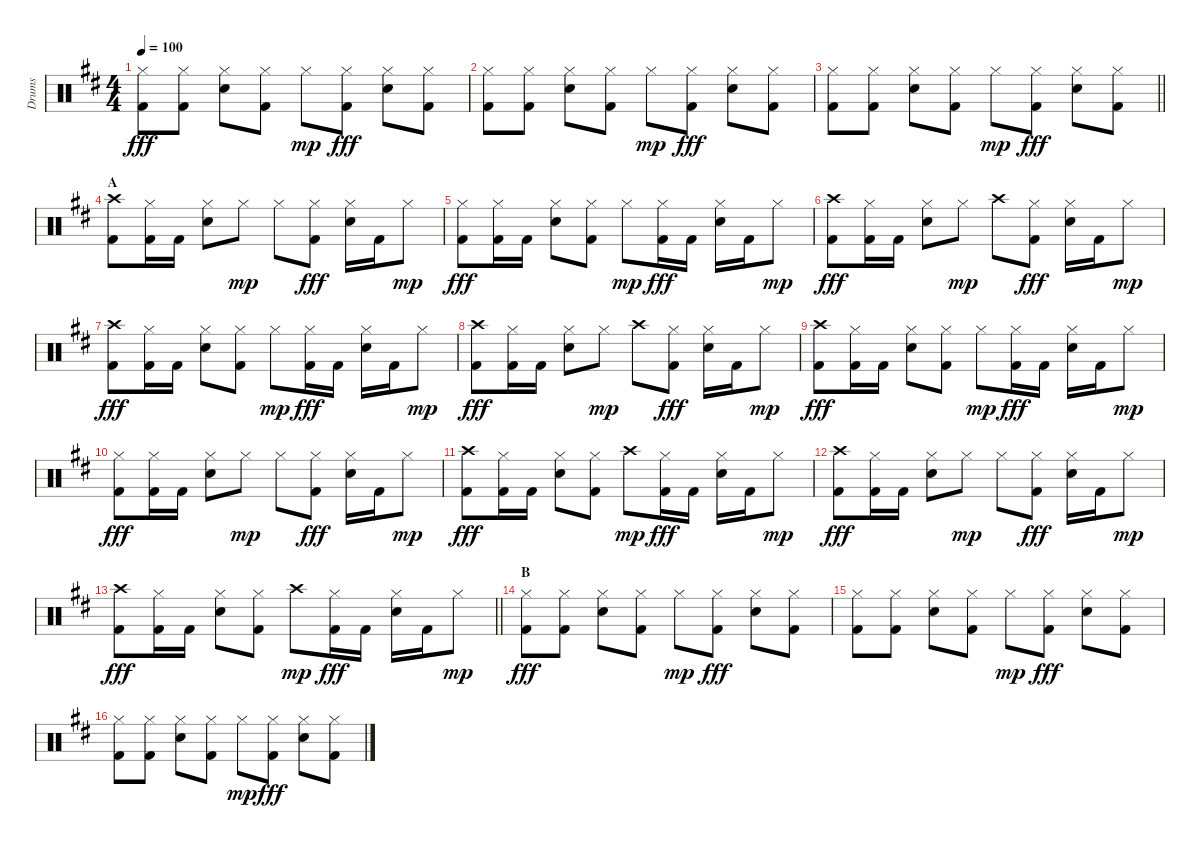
\track ("Drums" "Drums") {instrument percussion}
\staff
\articulation defaults
\ts (4 4)
\tempo 100
\clef neutral
\ks bminor
("Hi-Hat (closed)" "Kick (hit) 2").8{dy fff} ("Hi-Hat (closed)" "Kick (hit) 2").8 ("Hi-Hat (closed)" "Electric Snare (hit)").8 ("Hi-Hat (closed)" "Kick (hit) 2").8 "Hi-Hat (closed)".8{dy mp} ("Hi-Hat (closed)" "Kick (hit) 2").8{dy fff} ("Hi-Hat (closed)" "Electric Snare (hit)").8 ("Hi-Hat (closed)" "Kick (hit) 2").8 |
("Hi-Hat (closed)" "Kick (hit) 2").8 ("Hi-Hat (closed)" "Kick (hit) 2").8 ("Hi-Hat (closed)" "Electric Snare (hit)").8 ("Hi-Hat (closed)" "Kick (hit) 2").8 "Hi-Hat (closed)".8{dy mp} ("Hi-Hat (closed)" "Kick (hit) 2").8{dy fff} ("Hi-Hat (closed)" "Electric Snare (hit)").8 ("Hi-Hat (closed)" "Kick (hit) 2").8 |
\barLineRight lightlight
("Hi-Hat (closed)" "Kick (hit) 2").8 ("Hi-Hat (closed)" "Kick (hit) 2").8 ("Hi-Hat (closed)" "Electric Snare (hit)").8 ("Hi-Hat (closed)" "Kick (hit) 2").8 "Hi-Hat (closed)".8{dy mp} ("Hi-Hat (closed)" "Kick (hit) 2").8{dy fff} ("Hi-Hat (closed)" "Electric Snare (hit)").8 ("Hi-Hat (closed)" "Kick (hit) 2").8 |
\section ("" "A")
("Crash high (hit)" "Kick (hit) 2").8 ("Hi-Hat (closed)" "Kick (hit) 2").16 "Kick (hit) 2".16 ("Hi-Hat (closed)" "Electric Snare (hit)").8 "Hi-Hat (closed)".8{dy mp} "Hi-Hat (closed)".8 ("Hi-Hat (closed)" "Kick (hit) 2").8{dy fff} ("Hi-Hat (closed)" "Electric Snare (hit)").16 "Kick (hit) 2".16 "Hi-Hat (closed)".8{dy mp} |
("Hi-Hat (closed)" "Kick (hit) 2").8{dy fff} ("Hi-Hat (closed)" "Kick (hit) 2").16 "Kick (hit) 2".16 ("Hi-Hat (closed)" "Electric Snare (hit)").8 ("Hi-Hat (closed)" "Kick (hit) 2").8 "Hi-Hat (closed)".8{dy mp} ("Hi-Hat (closed)" "Kick (hit) 2").16{dy fff} "Kick (hit) 2".16 ("Hi-Hat (closed)" "Electric Snare (hit)").16 "Kick (hit) 2".16 "Hi-Hat (closed)".8{dy mp} |
("Crash high (hit)" "Kick (hit) 2").8{dy fff} ("Hi-Hat (closed)" "Kick (hit) 2").16 "Kick (hit) 2".16 ("Hi-Hat (closed)" "Electric Snare (hit)").8 "Hi-Hat (closed)".8{dy mp} "Crash high (hit)".8 ("Hi-Hat (closed)" "Kick (hit) 2").8{dy fff} ("Hi-Hat (closed)" "Electric Snare (hit)").16 "Kick (hit) 2".16 "Hi-Hat (closed)".8{dy mp} |
("Crash high (hit)" "Kick (hit) 2").8{dy fff} ("Hi-Hat (closed)" "Kick (hit) 2").16 "Kick (hit) 2".16 ("Hi-Hat (closed)" "Electric Snare (hit)").8 ("Hi-Hat (closed)" "Kick (hit) 2").8 "Hi-Hat (closed)".8{dy mp} ("Hi-Hat (closed)" "Kick (hit) 2").16{dy fff} "Kick (hit) 2".16 ("Hi-Hat (closed)" "Electric Snare (hit)").16 "Kick (hit) 2".16 "Hi-Hat (closed)".8{dy mp} |
("Crash high (hit)" "Kick (hit) 2").8{dy fff} ("Hi-Hat (closed)" "Kick (hit) 2").16 "Kick (hit) 2".16 ("Hi-Hat (closed)" "Electric Snare (hit)").8 "Hi-Hat (closed)".8{dy mp} "Crash high (hit)".8 ("Hi-Hat (closed)" "Kick (hit) 2").8{dy fff} ("Hi-Hat (closed)" "Electric Snare (hit)").16 "Kick (hit) 2".16 "Hi-Hat (closed)".8{dy mp} |
("Crash high (hit)" "Kick (hit) 2").8{dy fff} ("Hi-Hat (closed)" "Kick (hit) 2").16 "Kick (hit) 2".16 ("Hi-Hat (closed)" "Electric Snare (hit)").8 ("Hi-Hat (closed)" "Kick (hit) 2").8 "Hi-Hat (closed)".8{dy mp} ("Hi-Hat (closed)" "Kick (hit) 2").16{dy fff} "Kick (hit) 2".16 ("Hi-Hat (closed)" "Electric Snare (hit)").16 "Kick (hit) 2".16 "Hi-Hat (closed)".8{dy mp} |
("Hi-Hat (closed)" "Kick (hit) 2").8{dy fff} ("Hi-Hat (closed)" "Kick (hit) 2").16 "Kick (hit) 2".16 ("Hi-Hat (closed)" "Electric Snare (hit)").8 "Hi-Hat (closed)".8{dy mp} "Hi-Hat (closed)".8 ("Hi-Hat (closed)" "Kick (hit) 2").8{dy fff} ("Hi-Hat (closed)" "Electric Snare (hit)").16 "Kick (hit) 2".16 "Hi-Hat (closed)".8{dy mp} |
("Crash high (hit)" "Kick (hit) 2").8{dy fff} ("Hi-Hat (closed)" "Kick (hit) 2").16 "Kick (hit) 2".16 ("Hi-Hat (closed)" "Electric Snare (hit)").8 ("Hi-Hat (closed)" "Kick (hit) 2").8 "Crash high (hit)".8{dy mp} ("Hi-Hat (closed)" "Kick (hit) 2").16{dy fff} "Kick (hit) 2".16 ("Hi-Hat (closed)" "Electric Snare (hit)").16 "Kick (hit) 2".16 "Hi-Hat (closed)".8{dy mp} |
("Crash high (hit)" "Kick (hit) 2").8{dy fff} ("Hi-Hat (closed)" "Kick (hit) 2").16 "Kick (hit) 2".16 ("Hi-Hat (closed)" "Electric Snare (hit)").8 "Hi-Hat (closed)".8{dy mp} "Hi-Hat (closed)".8 ("Hi-Hat (closed)" "Kick (hit) 2").8{dy fff} ("Hi-Hat (closed)" "Electric Snare (hit)").16 "Kick (hit) 2".16 "Hi-Hat (closed)".8{dy mp} |
\barLineRight lightlight
("Crash high (hit)" "Kick (hit) 2").8{dy fff} ("Hi-Hat (closed)" "Kick (hit) 2").16 "Kick (hit) 2".16 ("Hi-Hat (closed)" "Electric Snare (hit)").8 ("Hi-Hat (closed)" "Kick (hit) 2").8 "Crash high (hit)".8{dy mp} ("Hi-Hat (closed)" "Kick (hit) 2").16{dy fff} "Kick (hit) 2".16 ("Hi-Hat (closed)" "Electric Snare (hit)").16 "Kick (hit) 2".16 "Hi-Hat (closed)".8{dy mp} |
\section ("" "B")
("Hi-Hat (closed)" "Kick (hit) 2").8{dy fff} ("Hi-Hat (closed)" "Kick (hit) 2").8 ("Hi-Hat (closed)" "Electric Snare (hit)").8 ("Hi-Hat (closed)" "Kick (hit) 2").8 "Hi-Hat (closed)".8{dy mp} ("Hi-Hat (closed)" "Kick (hit) 2").8{dy fff} ("Hi-Hat (closed)" "Electric Snare (hit)").8 ("Hi-Hat (closed)" "Kick (hit) 2").8 |
("Hi-Hat (closed)" "Kick (hit) 2").8 ("Hi-Hat (closed)" "Kick (hit) 2").8 ("Hi-Hat (closed)" "Electric Snare (hit)").8 ("Hi-Hat (closed)" "Kick (hit) 2").8 "Hi-Hat (closed)".8{dy mp} ("Hi-Hat (closed)" "Kick (hit) 2").8{dy fff} ("Hi-Hat (closed)" "Electric Snare (hit)").8 ("Hi-Hat (closed)" "Kick (hit) 2").8 |
("Hi-Hat (closed)" "Kick (hit) 2").8 ("Hi-Hat (closed)" "Kick (hit) 2").8 ("Hi-Hat (closed)" "Electric Snare (hit)").8 ("Hi-Hat (closed)" "Kick (hit) 2").8 "Hi-Hat (closed)".8{dy mp} ("Hi-Hat (closed)" "Kick (hit) 2").8{dy fff} ("Hi-Hat (closed)" "Electric Snare (hit)").8 ("Hi-Hat (closed)" "Kick (hit) 2").8
